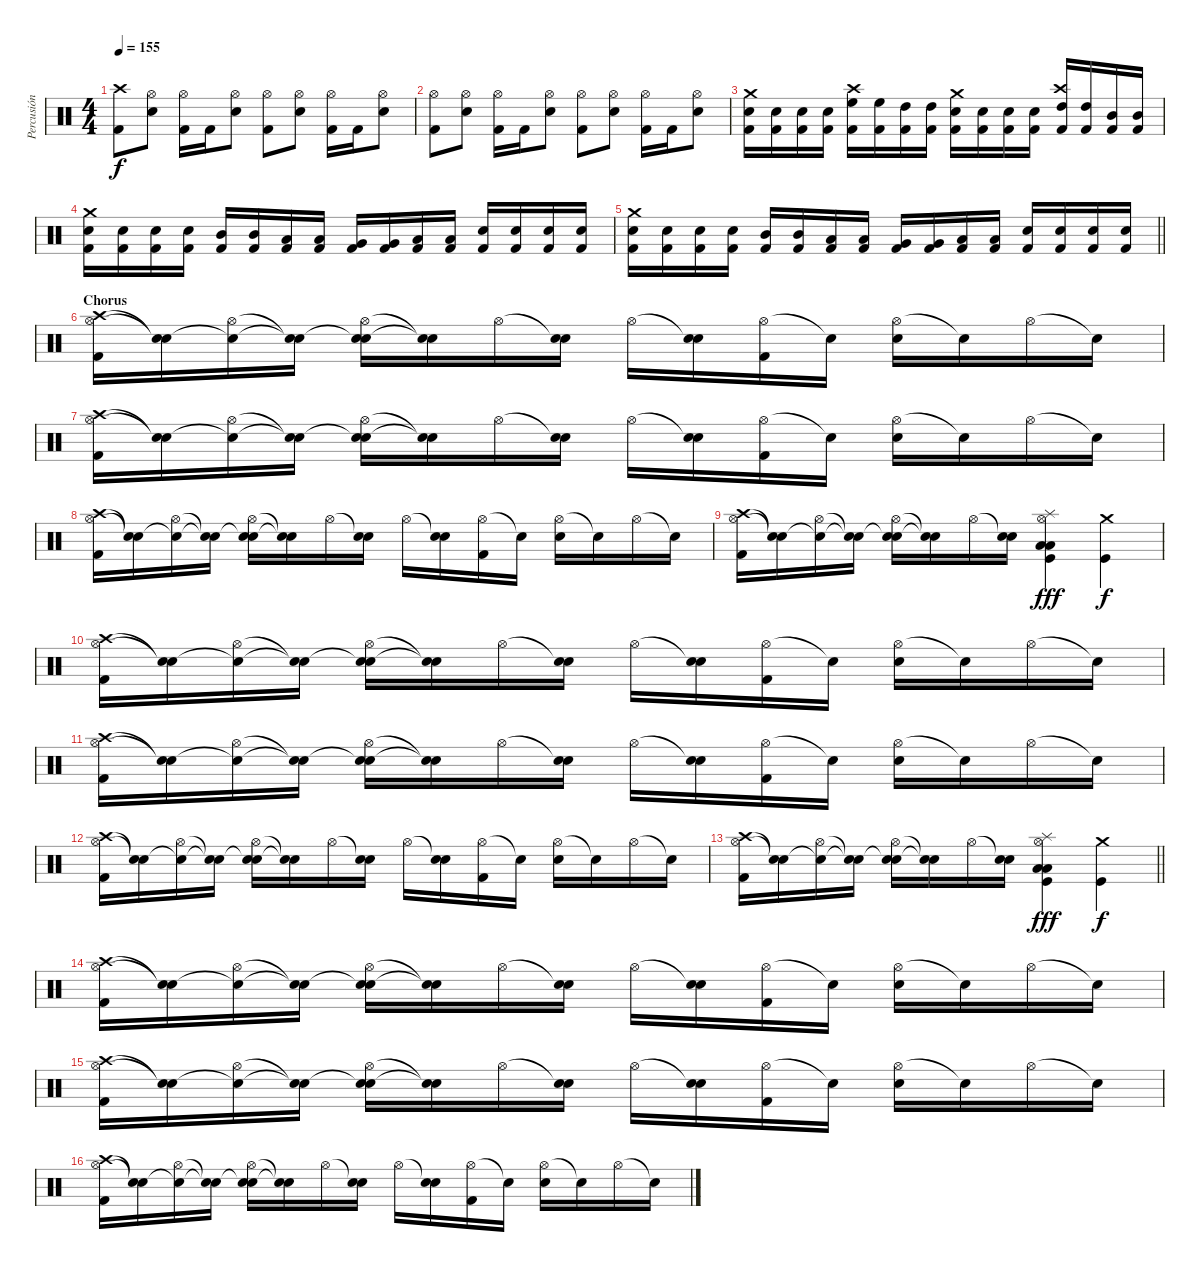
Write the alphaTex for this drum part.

\track ("Percusión (Erik)" "Percusión ") {instrument percussion}
\staff {score}
\articulation defaults
\ts (4 4)
\tempo 155
\clef neutral
\ks aminor
("Kick (hit) 2" "Crash high (hit)").8{dy f} ("Snare (hit) 2" "Hi-Hat (open)").8 ("Kick (hit) 2" "Hi-Hat (open)").16 "Kick (hit) 2".16 ("Snare (hit) 2" "Hi-Hat (open)").8 ("Kick (hit) 2" "Hi-Hat (open)").8 ("Snare (hit) 2" "Hi-Hat (open)").8 ("Kick (hit) 2" "Hi-Hat (open)").16 "Kick (hit) 2".16 ("Snare (hit) 2" "Hi-Hat (open)").8 |
("Kick (hit) 2" "Hi-Hat (open)").8 ("Snare (hit) 2" "Hi-Hat (open)").8 ("Kick (hit) 2" "Hi-Hat (open)").16 "Kick (hit) 2".16 ("Snare (hit) 2" "Hi-Hat (open)").8 ("Kick (hit) 2" "Hi-Hat (open)").8 ("Snare (hit) 2" "Hi-Hat (open)").8 ("Kick (hit) 2" "Hi-Hat (open)").16 "Kick (hit) 2".16 ("Snare (hit) 2" "Hi-Hat (open)").8 |
\ks c
("Kick (hit) 2" "Snare (hit) 2" "Crash medium (hit)").16 ("Kick (hit) 2" "Snare (hit) 2").16 ("Kick (hit) 2" "Snare (hit) 2").16 ("Kick (hit) 2" "Snare (hit) 2").16 ("Kick (hit) 2" "High Floor Tom (hit)" "Crash high (hit)").16 ("Kick (hit) 2" "High Floor Tom (hit)").16 ("Kick (hit) 2" "High Tom (hit)").16 ("Kick (hit) 2" "High Tom (hit)").16 ("Kick (hit) 2" "Snare (hit) 2" "Crash medium (hit)").16 ("Kick (hit) 2" "Snare (hit) 2").16 ("Kick (hit) 2" "Snare (hit) 2").16 ("Kick (hit) 2" "Snare (hit) 2").16 ("Kick (hit) 2" "High Tom (hit)" "Crash high (hit)").16 ("Kick (hit) 2" "High Tom (hit)").16 ("Kick (hit) 2" "Mid Tom (hit)").16 ("Kick (hit) 2" "Mid Tom (hit)").16 |
("Kick (hit) 2" "Snare (hit) 2" "Crash medium (hit)").16 ("Kick (hit) 2" "Snare (hit) 2").16 ("Kick (hit) 2" "Snare (hit) 2").16 ("Kick (hit) 2" "Snare (hit) 2").16 ("Kick (hit) 2" "Mid Tom (hit)").16 ("Kick (hit) 2" "Mid Tom (hit)").16 ("Kick (hit) 2" "Low Tom (hit)").16 ("Kick (hit) 2" "Low Tom (hit)").16 ("Kick (hit) 2" "Very Low Tom (hit)").16 ("Kick (hit) 2" "Very Low Tom (hit)").16 ("Kick (hit) 2" "Low Floor Tom (hit)").16 ("Kick (hit) 2" "Low Floor Tom (hit)").16 ("Kick (hit) 2" "Snare (hit) 2").16 ("Kick (hit) 2" "Snare (hit) 2").16 ("Kick (hit) 2" "Snare (hit) 2").16 ("Kick (hit) 2" "Snare (hit) 2").16 |
\barLineRight lightlight
("Kick (hit) 2" "Snare (hit) 2" "Crash medium (hit)").16 ("Kick (hit) 2" "Snare (hit) 2").16 ("Kick (hit) 2" "Snare (hit) 2").16 ("Kick (hit) 2" "Snare (hit) 2").16 ("Kick (hit) 2" "Mid Tom (hit)").16 ("Kick (hit) 2" "Mid Tom (hit)").16 ("Kick (hit) 2" "Low Tom (hit)").16 ("Kick (hit) 2" "Low Tom (hit)").16 ("Kick (hit) 2" "Very Low Tom (hit)").16 ("Kick (hit) 2" "Very Low Tom (hit)").16 ("Kick (hit) 2" "Low Floor Tom (hit)").16 ("Kick (hit) 2" "Low Floor Tom (hit)").16 ("Kick (hit) 2" "Snare (hit) 2").16 ("Kick (hit) 2" "Snare (hit) 2").16 ("Kick (hit) 2" "Snare (hit) 2").16 ("Kick (hit) 2" "Snare (hit) 2").16 |
\section ("" "Chorus")
("Crash high (hit)" "Hi-Hat (open)" "Kick (hit) 2").16{volume 14} ("Snare (hit)"{t} "Snare (hit)"{t}).16 ("Snare (hit)"{t} "Hi-Hat (open)").16 ("Snare (hit)"{t} "Snare (hit)"{t}).16 ("Snare (hit)"{t} "Hi-Hat (open)" "Electric Snare (hit)").16 ("Snare (hit)"{t} "Snare (hit)"{t}).16 "Hi-Hat (open)".16 ("Snare (hit)"{t} "Electric Snare (hit)").16 "Hi-Hat (open)".16 ("Snare (hit)"{t} "Electric Snare (hit)").16 ("Hi-Hat (open)" "Kick (hit) 2").16 "Snare (hit)"{t}.16 ("Hi-Hat (open)" "Electric Snare (hit)").16 "Snare (hit)"{t}.16 "Hi-Hat (open)".16 "Snare (hit)"{t}.16 |
("Crash high (hit)" "Hi-Hat (open)" "Kick (hit) 2").16{volume 14} ("Snare (hit)"{t} "Snare (hit)"{t}).16 ("Snare (hit)"{t} "Hi-Hat (open)").16 ("Snare (hit)"{t} "Snare (hit)"{t}).16 ("Snare (hit)"{t} "Hi-Hat (open)" "Electric Snare (hit)").16 ("Snare (hit)"{t} "Snare (hit)"{t}).16 "Hi-Hat (open)".16 ("Snare (hit)"{t} "Electric Snare (hit)").16 "Hi-Hat (open)".16 ("Snare (hit)"{t} "Electric Snare (hit)").16 ("Hi-Hat (open)" "Kick (hit) 2").16 "Snare (hit)"{t}.16 ("Hi-Hat (open)" "Electric Snare (hit)").16 "Snare (hit)"{t}.16 "Hi-Hat (open)".16 "Snare (hit)"{t}.16 |
("Crash high (hit)" "Hi-Hat (open)" "Kick (hit) 2").16{volume 14} ("Snare (hit)"{t} "Snare (hit)"{t}).16 ("Snare (hit)"{t} "Hi-Hat (open)").16 ("Snare (hit)"{t} "Snare (hit)"{t}).16 ("Snare (hit)"{t} "Hi-Hat (open)" "Electric Snare (hit)").16 ("Snare (hit)"{t} "Snare (hit)"{t}).16 "Hi-Hat (open)".16 ("Snare (hit)"{t} "Electric Snare (hit)").16 "Hi-Hat (open)".16 ("Snare (hit)"{t} "Electric Snare (hit)").16 ("Hi-Hat (open)" "Kick (hit) 2").16 "Snare (hit)"{t}.16 ("Hi-Hat (open)" "Electric Snare (hit)").16 "Snare (hit)"{t}.16 "Hi-Hat (open)".16 "Snare (hit)"{t}.16 |
("Crash high (hit)" "Hi-Hat (open)" "Kick (hit) 2").16{volume 14} ("Snare (hit)"{t} "Snare (hit)"{t}).16 ("Snare (hit)"{t} "Hi-Hat (open)").16 ("Snare (hit)"{t} "Snare (hit)"{t}).16 ("Snare (hit)"{t} "Hi-Hat (open)" "Electric Snare (hit)").16 ("Snare (hit)"{t} "Snare (hit)"{t}).16 "Hi-Hat (open)".16 ("Snare (hit)"{t} "Electric Snare (hit)").16 ("Hi-Hat (open)" "Low Floor Tom (hit)" "Low Tom (hit)" "Kick (hit)" "Splash (hit)").4{dy fff} ("Crash medium (hit)" "Kick (hit)").4{dy f} |
("Crash high (hit)" "Hi-Hat (open)" "Kick (hit) 2").16{volume 14} ("Snare (hit)"{t} "Snare (hit)"{t}).16 ("Snare (hit)"{t} "Hi-Hat (open)").16 ("Snare (hit)"{t} "Snare (hit)"{t}).16 ("Snare (hit)"{t} "Hi-Hat (open)" "Electric Snare (hit)").16 ("Snare (hit)"{t} "Snare (hit)"{t}).16 "Hi-Hat (open)".16 ("Snare (hit)"{t} "Electric Snare (hit)").16 "Hi-Hat (open)".16 ("Snare (hit)"{t} "Electric Snare (hit)").16 ("Hi-Hat (open)" "Kick (hit) 2").16 "Snare (hit)"{t}.16 ("Hi-Hat (open)" "Electric Snare (hit)").16 "Snare (hit)"{t}.16 "Hi-Hat (open)".16 "Snare (hit)"{t}.16 |
("Crash high (hit)" "Hi-Hat (open)" "Kick (hit) 2").16{volume 14} ("Snare (hit)"{t} "Snare (hit)"{t}).16 ("Snare (hit)"{t} "Hi-Hat (open)").16 ("Snare (hit)"{t} "Snare (hit)"{t}).16 ("Snare (hit)"{t} "Hi-Hat (open)" "Electric Snare (hit)").16 ("Snare (hit)"{t} "Snare (hit)"{t}).16 "Hi-Hat (open)".16 ("Snare (hit)"{t} "Electric Snare (hit)").16 "Hi-Hat (open)".16 ("Snare (hit)"{t} "Electric Snare (hit)").16 ("Hi-Hat (open)" "Kick (hit) 2").16 "Snare (hit)"{t}.16 ("Hi-Hat (open)" "Electric Snare (hit)").16 "Snare (hit)"{t}.16 "Hi-Hat (open)".16 "Snare (hit)"{t}.16 |
("Crash high (hit)" "Hi-Hat (open)" "Kick (hit) 2").16{volume 14} ("Snare (hit)"{t} "Snare (hit)"{t}).16 ("Snare (hit)"{t} "Hi-Hat (open)").16 ("Snare (hit)"{t} "Snare (hit)"{t}).16 ("Snare (hit)"{t} "Hi-Hat (open)" "Electric Snare (hit)").16 ("Snare (hit)"{t} "Snare (hit)"{t}).16 "Hi-Hat (open)".16 ("Snare (hit)"{t} "Electric Snare (hit)").16 "Hi-Hat (open)".16 ("Snare (hit)"{t} "Electric Snare (hit)").16 ("Hi-Hat (open)" "Kick (hit) 2").16 "Snare (hit)"{t}.16 ("Hi-Hat (open)" "Electric Snare (hit)").16 "Snare (hit)"{t}.16 "Hi-Hat (open)".16 "Snare (hit)"{t}.16 |
\barLineRight lightlight
("Crash high (hit)" "Hi-Hat (open)" "Kick (hit) 2").16{volume 14} ("Snare (hit)"{t} "Snare (hit)"{t}).16 ("Snare (hit)"{t} "Hi-Hat (open)").16 ("Snare (hit)"{t} "Snare (hit)"{t}).16 ("Snare (hit)"{t} "Hi-Hat (open)" "Electric Snare (hit)").16 ("Snare (hit)"{t} "Snare (hit)"{t}).16 "Hi-Hat (open)".16 ("Snare (hit)"{t} "Electric Snare (hit)").16 ("Hi-Hat (open)" "Low Floor Tom (hit)" "Low Tom (hit)" "Kick (hit)" "Splash (hit)").4{dy fff} ("Crash medium (hit)" "Kick (hit)").4{dy f} |
("Crash high (hit)" "Hi-Hat (open)" "Kick (hit) 2").16{volume 14} ("Snare (hit)"{t} "Snare (hit)"{t}).16 ("Snare (hit)"{t} "Hi-Hat (open)").16 ("Snare (hit)"{t} "Snare (hit)"{t}).16 ("Snare (hit)"{t} "Hi-Hat (open)" "Electric Snare (hit)").16 ("Snare (hit)"{t} "Snare (hit)"{t}).16 "Hi-Hat (open)".16 ("Snare (hit)"{t} "Electric Snare (hit)").16 "Hi-Hat (open)".16 ("Snare (hit)"{t} "Electric Snare (hit)").16 ("Hi-Hat (open)" "Kick (hit) 2").16 "Snare (hit)"{t}.16 ("Hi-Hat (open)" "Electric Snare (hit)").16 "Snare (hit)"{t}.16 "Hi-Hat (open)".16 "Snare (hit)"{t}.16 |
("Crash high (hit)" "Hi-Hat (open)" "Kick (hit) 2").16{volume 14} ("Snare (hit)"{t} "Snare (hit)"{t}).16 ("Snare (hit)"{t} "Hi-Hat (open)").16 ("Snare (hit)"{t} "Snare (hit)"{t}).16 ("Snare (hit)"{t} "Hi-Hat (open)" "Electric Snare (hit)").16 ("Snare (hit)"{t} "Snare (hit)"{t}).16 "Hi-Hat (open)".16 ("Snare (hit)"{t} "Electric Snare (hit)").16 "Hi-Hat (open)".16 ("Snare (hit)"{t} "Electric Snare (hit)").16 ("Hi-Hat (open)" "Kick (hit) 2").16 "Snare (hit)"{t}.16 ("Hi-Hat (open)" "Electric Snare (hit)").16 "Snare (hit)"{t}.16 "Hi-Hat (open)".16 "Snare (hit)"{t}.16 |
("Crash high (hit)" "Hi-Hat (open)" "Kick (hit) 2").16{volume 14} ("Snare (hit)"{t} "Snare (hit)"{t}).16 ("Snare (hit)"{t} "Hi-Hat (open)").16 ("Snare (hit)"{t} "Snare (hit)"{t}).16 ("Snare (hit)"{t} "Hi-Hat (open)" "Electric Snare (hit)").16 ("Snare (hit)"{t} "Snare (hit)"{t}).16 "Hi-Hat (open)".16 ("Snare (hit)"{t} "Electric Snare (hit)").16 "Hi-Hat (open)".16 ("Snare (hit)"{t} "Electric Snare (hit)").16 ("Hi-Hat (open)" "Kick (hit) 2").16 "Snare (hit)"{t}.16 ("Hi-Hat (open)" "Electric Snare (hit)").16 "Snare (hit)"{t}.16 "Hi-Hat (open)".16 "Snare (hit)"{t}.16
